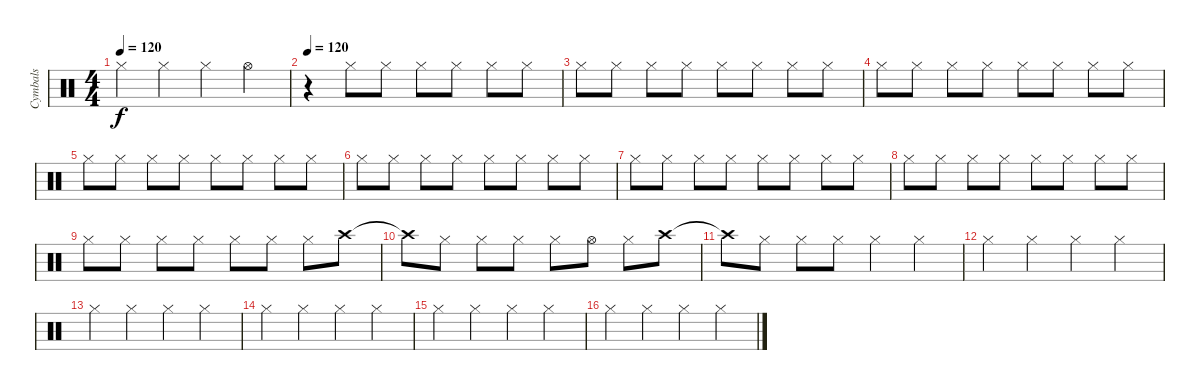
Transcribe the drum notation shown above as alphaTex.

\track ("Cymbals" "Cymbals") {instrument percussion}
\staff {score}
\articulation defaults
\ts (4 4)
\tempo 120
\clef neutral
\ks c "Hi-Hat (closed)".4{dy f} "Hi-Hat (closed)".4 "Hi-Hat (closed)".4 "Hi-Hat (open)".4
|
\tempo 120
r.4 "Hi-Hat (closed)".8 "Hi-Hat (closed)".8 "Hi-Hat (closed)".8 "Hi-Hat (closed)".8 "Hi-Hat (closed)".8 "Hi-Hat (closed)".8 |
"Hi-Hat (closed)".8 "Hi-Hat (closed)".8 "Hi-Hat (closed)".8 "Hi-Hat (closed)".8 "Hi-Hat (closed)".8 "Hi-Hat (closed)".8 "Hi-Hat (closed)".8 "Hi-Hat (closed)".8 |
"Hi-Hat (closed)".8 "Hi-Hat (closed)".8 "Hi-Hat (closed)".8 "Hi-Hat (closed)".8 "Hi-Hat (closed)".8 "Hi-Hat (closed)".8 "Hi-Hat (closed)".8 "Hi-Hat (closed)".8 |
"Hi-Hat (closed)".8 "Hi-Hat (closed)".8 "Hi-Hat (closed)".8 "Hi-Hat (closed)".8 "Hi-Hat (closed)".8 "Hi-Hat (closed)".8 "Hi-Hat (closed)".8 "Hi-Hat (closed)".8 |
"Hi-Hat (closed)".8 "Hi-Hat (closed)".8 "Hi-Hat (closed)".8 "Hi-Hat (closed)".8 "Hi-Hat (closed)".8 "Hi-Hat (closed)".8 "Hi-Hat (closed)".8 "Hi-Hat (closed)".8 |
"Hi-Hat (closed)".8 "Hi-Hat (closed)".8 "Hi-Hat (closed)".8 "Hi-Hat (closed)".8 "Hi-Hat (closed)".8 "Hi-Hat (closed)".8 "Hi-Hat (closed)".8 "Hi-Hat (closed)".8 |
"Hi-Hat (closed)".8 "Hi-Hat (closed)".8 "Hi-Hat (closed)".8 "Hi-Hat (closed)".8 "Hi-Hat (closed)".8 "Hi-Hat (closed)".8 "Hi-Hat (closed)".8 "Hi-Hat (closed)".8 |
"Hi-Hat (closed)".8 "Hi-Hat (closed)".8 "Hi-Hat (closed)".8 "Hi-Hat (closed)".8 "Hi-Hat (closed)".8 "Hi-Hat (closed)".8 "Hi-Hat (closed)".8 "Crash high (hit)".8 |
"Crash high (hit)"{t}.8 "Hi-Hat (closed)".8 "Hi-Hat (closed)".8 "Hi-Hat (closed)".8 "Hi-Hat (closed)".8 "Hi-Hat (open)".8 "Hi-Hat (closed)".8 "Crash high (hit)".8 |
"Crash high (hit)"{t}.8 "Hi-Hat (closed)".8 "Hi-Hat (closed)".8 "Hi-Hat (closed)".8 "Hi-Hat (closed)".4 "Hi-Hat (closed)".4 |
"Hi-Hat (closed)".4 "Hi-Hat (closed)".4 "Hi-Hat (closed)".4 "Hi-Hat (closed)".4 |
"Hi-Hat (closed)".4 "Hi-Hat (closed)".4 "Hi-Hat (closed)".4 "Hi-Hat (closed)".4 |
"Hi-Hat (closed)".4 "Hi-Hat (closed)".4 "Hi-Hat (closed)".4 "Hi-Hat (closed)".4 |
"Hi-Hat (closed)".4 "Hi-Hat (closed)".4 "Hi-Hat (closed)".4 "Hi-Hat (closed)".4 |
"Hi-Hat (closed)".4 "Hi-Hat (closed)".4 "Hi-Hat (closed)".4 "Hi-Hat (closed)".4
